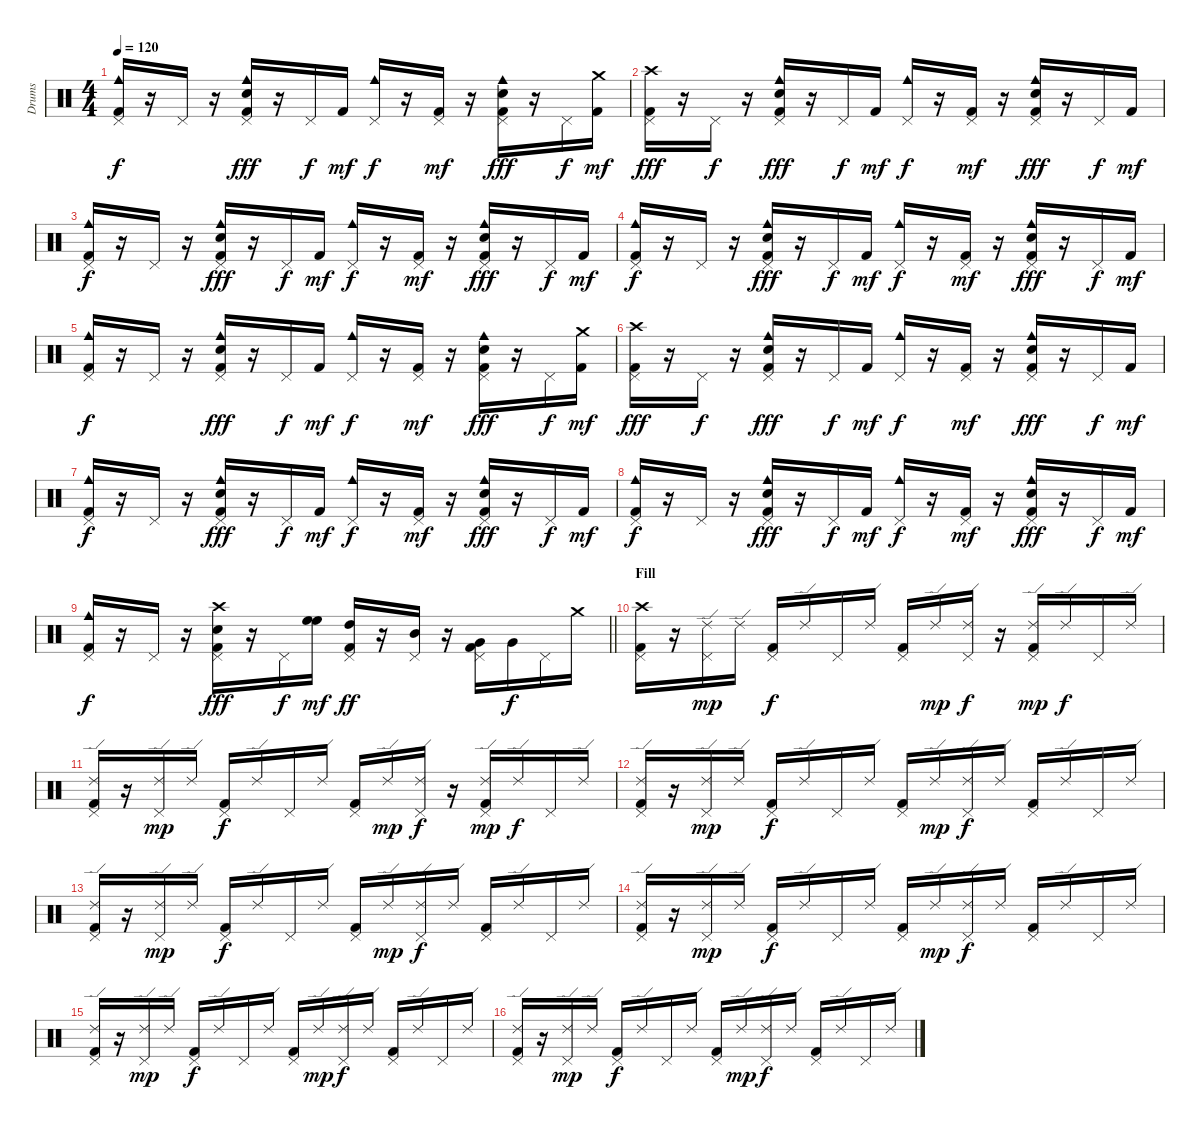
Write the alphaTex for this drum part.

\track ("Drums" "Drums") {instrument percussion}
\staff {score}
\articulation defaults
\ts (4 4)
\tempo 120
\clef neutral
\ks c
("Cowbell medium (hit)" "Kick (hit) 2" "Pedal Hi-Hat (hit)").16{dy f} r.16 "Pedal Hi-Hat (hit)".16 r.16 ("Cowbell medium (hit)" "Snare (hit) 2" "Kick (hit) 2" "Pedal Hi-Hat (hit)").16{dy fff} r.16 "Pedal Hi-Hat (hit)".16{dy f} "Kick (hit) 2".16{dy mf} ("Cowbell medium (hit)" "Pedal Hi-Hat (hit)").16{dy f} r.16 ("Kick (hit) 2" "Pedal Hi-Hat (hit)").16{dy mf} r.16 ("Cowbell medium (hit)" "Snare (hit) 2" "Kick (hit) 2" "Pedal Hi-Hat (hit)").16{dy fff} r.16 "Pedal Hi-Hat (hit)".16{dy f} ("Kick (hit) 2" "Crash medium (hit)").16{dy mf} |
("Crash high (hit)" "Kick (hit) 2" "Pedal Hi-Hat (hit)").16{dy fff} r.16 "Pedal Hi-Hat (hit)".16{dy f} r.16 ("Cowbell medium (hit)" "Snare (hit) 2" "Kick (hit) 2" "Pedal Hi-Hat (hit)").16{dy fff} r.16 "Pedal Hi-Hat (hit)".16{dy f} "Kick (hit) 2".16{dy mf} ("Cowbell medium (hit)" "Pedal Hi-Hat (hit)").16{dy f} r.16 ("Kick (hit) 2" "Pedal Hi-Hat (hit)").16{dy mf} r.16 ("Cowbell medium (hit)" "Snare (hit) 2" "Kick (hit) 2" "Pedal Hi-Hat (hit)").16{dy fff} r.16 "Pedal Hi-Hat (hit)".16{dy f} "Kick (hit) 2".16{dy mf} |
("Cowbell medium (hit)" "Kick (hit) 2" "Pedal Hi-Hat (hit)").16{dy f} r.16 "Pedal Hi-Hat (hit)".16 r.16 ("Cowbell medium (hit)" "Snare (hit) 2" "Kick (hit) 2" "Pedal Hi-Hat (hit)").16{dy fff} r.16 "Pedal Hi-Hat (hit)".16{dy f} "Kick (hit) 2".16{dy mf} ("Cowbell medium (hit)" "Pedal Hi-Hat (hit)").16{dy f} r.16 ("Kick (hit) 2" "Pedal Hi-Hat (hit)").16{dy mf} r.16 ("Cowbell medium (hit)" "Snare (hit) 2" "Kick (hit) 2" "Pedal Hi-Hat (hit)").16{dy fff} r.16 "Pedal Hi-Hat (hit)".16{dy f} "Kick (hit) 2".16{dy mf} |
("Cowbell medium (hit)" "Kick (hit) 2" "Pedal Hi-Hat (hit)").16{dy f} r.16 "Pedal Hi-Hat (hit)".16 r.16 ("Cowbell medium (hit)" "Snare (hit) 2" "Kick (hit) 2" "Pedal Hi-Hat (hit)").16{dy fff} r.16 "Pedal Hi-Hat (hit)".16{dy f} "Kick (hit) 2".16{dy mf} ("Cowbell medium (hit)" "Pedal Hi-Hat (hit)").16{dy f} r.16 ("Kick (hit) 2" "Pedal Hi-Hat (hit)").16{dy mf} r.16 ("Cowbell medium (hit)" "Snare (hit) 2" "Kick (hit) 2" "Pedal Hi-Hat (hit)").16{dy fff} r.16 "Pedal Hi-Hat (hit)".16{dy f} "Kick (hit) 2".16{dy mf} |
("Cowbell medium (hit)" "Kick (hit) 2" "Pedal Hi-Hat (hit)").16{dy f} r.16 "Pedal Hi-Hat (hit)".16 r.16 ("Cowbell medium (hit)" "Snare (hit) 2" "Kick (hit) 2" "Pedal Hi-Hat (hit)").16{dy fff} r.16 "Pedal Hi-Hat (hit)".16{dy f} "Kick (hit) 2".16{dy mf} ("Cowbell medium (hit)" "Pedal Hi-Hat (hit)").16{dy f} r.16 ("Kick (hit) 2" "Pedal Hi-Hat (hit)").16{dy mf} r.16 ("Cowbell medium (hit)" "Snare (hit) 2" "Kick (hit) 2" "Pedal Hi-Hat (hit)").16{dy fff} r.16 "Pedal Hi-Hat (hit)".16{dy f} ("Kick (hit) 2" "Crash medium (hit)").16{dy mf} |
("Crash high (hit)" "Kick (hit) 2" "Pedal Hi-Hat (hit)").16{dy fff} r.16 "Pedal Hi-Hat (hit)".16{dy f} r.16 ("Cowbell medium (hit)" "Snare (hit) 2" "Kick (hit) 2" "Pedal Hi-Hat (hit)").16{dy fff} r.16 "Pedal Hi-Hat (hit)".16{dy f} "Kick (hit) 2".16{dy mf} ("Cowbell medium (hit)" "Pedal Hi-Hat (hit)").16{dy f} r.16 ("Kick (hit) 2" "Pedal Hi-Hat (hit)").16{dy mf} r.16 ("Cowbell medium (hit)" "Snare (hit) 2" "Kick (hit) 2" "Pedal Hi-Hat (hit)").16{dy fff} r.16 "Pedal Hi-Hat (hit)".16{dy f} "Kick (hit) 2".16{dy mf} |
("Cowbell medium (hit)" "Kick (hit) 2" "Pedal Hi-Hat (hit)").16{dy f} r.16 "Pedal Hi-Hat (hit)".16 r.16 ("Cowbell medium (hit)" "Snare (hit) 2" "Kick (hit) 2" "Pedal Hi-Hat (hit)").16{dy fff} r.16 "Pedal Hi-Hat (hit)".16{dy f} "Kick (hit) 2".16{dy mf} ("Cowbell medium (hit)" "Pedal Hi-Hat (hit)").16{dy f} r.16 ("Kick (hit) 2" "Pedal Hi-Hat (hit)").16{dy mf} r.16 ("Cowbell medium (hit)" "Snare (hit) 2" "Kick (hit) 2" "Pedal Hi-Hat (hit)").16{dy fff} r.16 "Pedal Hi-Hat (hit)".16{dy f} "Kick (hit) 2".16{dy mf} |
("Cowbell medium (hit)" "Kick (hit) 2" "Pedal Hi-Hat (hit)").16{dy f} r.16 "Pedal Hi-Hat (hit)".16 r.16 ("Cowbell medium (hit)" "Snare (hit) 2" "Kick (hit) 2" "Pedal Hi-Hat (hit)").16{dy fff} r.16 "Pedal Hi-Hat (hit)".16{dy f} "Kick (hit) 2".16{dy mf} ("Cowbell medium (hit)" "Pedal Hi-Hat (hit)").16{dy f} r.16 ("Kick (hit) 2" "Pedal Hi-Hat (hit)").16{dy mf} r.16 ("Cowbell medium (hit)" "Snare (hit) 2" "Kick (hit) 2" "Pedal Hi-Hat (hit)").16{dy fff} r.16 "Pedal Hi-Hat (hit)".16{dy f} "Kick (hit) 2".16{dy mf} |
\barLineRight lightlight
("Kick (hit) 2" "Cowbell medium (hit)" "Pedal Hi-Hat (hit)").16{dy f} r.16 "Pedal Hi-Hat (hit)".16 r.16 ("Kick (hit) 2" "Snare (hit) 2" "Crash high (hit)" "Pedal Hi-Hat (hit)").16{dy fff} r.16 "Pedal Hi-Hat (hit)".16{dy f} ("High Floor Tom (hit)" "High Floor Tom (hit)").16{dy mf} ("Kick (hit) 2" "High Tom (hit)" "Pedal Hi-Hat (hit)").16{dy ff} r.16 ("Mid Tom (hit)" "Pedal Hi-Hat (hit)").16 r.16 ("Kick (hit) 2" "Very Low Tom (hit)" "Pedal Hi-Hat (hit)").16 "Very Low Tom (hit)".16{dy f} "Pedal Hi-Hat (hit)".16 "Crash medium (hit)".16 |
\section ("" "Fill")
("Kick (hit) 2" "Pedal Hi-Hat (hit)" "Crash high (hit)").16 r.16 ("Ride (edge) 2" "Pedal Hi-Hat (hit)").16{dy mp} "Ride (edge) 2".16 ("Kick (hit) 2" "Pedal Hi-Hat (hit)").16{dy f} "Ride (edge) 2".16 "Pedal Hi-Hat (hit)".16 "Ride (edge) 2".16 ("Kick (hit) 2" "Pedal Hi-Hat (hit)").16 "Ride (edge) 2".16{dy mp} ("Ride (edge) 2" "Pedal Hi-Hat (hit)").16{dy f} r.16 ("Ride (edge) 2" "Kick (hit) 2" "Pedal Hi-Hat (hit)").16{dy mp} "Ride (edge) 2".16{dy f} "Pedal Hi-Hat (hit)".16 "Ride (edge) 2".16 |
("Ride (edge) 2" "Kick (hit) 2" "Pedal Hi-Hat (hit)").16 r.16 ("Ride (edge) 2" "Pedal Hi-Hat (hit)").16{dy mp} "Ride (edge) 2".16 ("Kick (hit) 2" "Pedal Hi-Hat (hit)").16{dy f} "Ride (edge) 2".16 "Pedal Hi-Hat (hit)".16 "Ride (edge) 2".16 ("Kick (hit) 2" "Pedal Hi-Hat (hit)").16 "Ride (edge) 2".16{dy mp} ("Ride (edge) 2" "Pedal Hi-Hat (hit)").16{dy f} r.16 ("Ride (edge) 2" "Kick (hit) 2" "Pedal Hi-Hat (hit)").16{dy mp} "Ride (edge) 2".16{dy f} "Pedal Hi-Hat (hit)".16 "Ride (edge) 2".16 |
("Ride (edge) 2" "Kick (hit) 2" "Pedal Hi-Hat (hit)").16 r.16 ("Ride (edge) 2" "Pedal Hi-Hat (hit)").16{dy mp} "Ride (edge) 2".16 ("Kick (hit) 2" "Pedal Hi-Hat (hit)").16{dy f} "Ride (edge) 2".16 "Pedal Hi-Hat (hit)".16 "Ride (edge) 2".16 ("Kick (hit) 2" "Pedal Hi-Hat (hit)").16 "Ride (edge) 2".16{dy mp} ("Ride (edge) 2" "Pedal Hi-Hat (hit)").16{dy f} "Ride (edge) 2".16 ("Kick (hit) 2" "Pedal Hi-Hat (hit)").16 "Ride (edge) 2".16 "Pedal Hi-Hat (hit)".16 "Ride (edge) 2".16 |
("Ride (edge) 2" "Kick (hit) 2" "Pedal Hi-Hat (hit)").16 r.16 ("Ride (edge) 2" "Pedal Hi-Hat (hit)").16{dy mp} "Ride (edge) 2".16 ("Kick (hit) 2" "Pedal Hi-Hat (hit)").16{dy f} "Ride (edge) 2".16 "Pedal Hi-Hat (hit)".16 "Ride (edge) 2".16 ("Kick (hit) 2" "Pedal Hi-Hat (hit)").16 "Ride (edge) 2".16{dy mp} ("Ride (edge) 2" "Pedal Hi-Hat (hit)").16{dy f} "Ride (edge) 2".16 ("Kick (hit) 2" "Pedal Hi-Hat (hit)").16 "Ride (edge) 2".16 "Pedal Hi-Hat (hit)".16 "Ride (edge) 2".16 |
("Ride (edge) 2" "Kick (hit) 2" "Pedal Hi-Hat (hit)").16 r.16 ("Ride (edge) 2" "Pedal Hi-Hat (hit)").16{dy mp} "Ride (edge) 2".16 ("Kick (hit) 2" "Pedal Hi-Hat (hit)").16{dy f} "Ride (edge) 2".16 "Pedal Hi-Hat (hit)".16 "Ride (edge) 2".16 ("Kick (hit) 2" "Pedal Hi-Hat (hit)").16 "Ride (edge) 2".16{dy mp} ("Ride (edge) 2" "Pedal Hi-Hat (hit)").16{dy f} "Ride (edge) 2".16 ("Kick (hit) 2" "Pedal Hi-Hat (hit)").16 "Ride (edge) 2".16 "Pedal Hi-Hat (hit)".16 "Ride (edge) 2".16 |
("Ride (edge) 2" "Kick (hit) 2" "Pedal Hi-Hat (hit)").16 r.16 ("Ride (edge) 2" "Pedal Hi-Hat (hit)").16{dy mp} "Ride (edge) 2".16 ("Kick (hit) 2" "Pedal Hi-Hat (hit)").16{dy f} "Ride (edge) 2".16 "Pedal Hi-Hat (hit)".16 "Ride (edge) 2".16 ("Kick (hit) 2" "Pedal Hi-Hat (hit)").16 "Ride (edge) 2".16{dy mp} ("Ride (edge) 2" "Pedal Hi-Hat (hit)").16{dy f} "Ride (edge) 2".16 ("Kick (hit) 2" "Pedal Hi-Hat (hit)").16 "Ride (edge) 2".16 "Pedal Hi-Hat (hit)".16 "Ride (edge) 2".16 |
("Ride (edge) 2" "Kick (hit) 2" "Pedal Hi-Hat (hit)").16 r.16 ("Ride (edge) 2" "Pedal Hi-Hat (hit)").16{dy mp} "Ride (edge) 2".16 ("Kick (hit) 2" "Pedal Hi-Hat (hit)").16{dy f} "Ride (edge) 2".16 "Pedal Hi-Hat (hit)".16 "Ride (edge) 2".16 ("Kick (hit) 2" "Pedal Hi-Hat (hit)").16 "Ride (edge) 2".16{dy mp} ("Ride (edge) 2" "Pedal Hi-Hat (hit)").16{dy f} "Ride (edge) 2".16 ("Kick (hit) 2" "Pedal Hi-Hat (hit)").16 "Ride (edge) 2".16 "Pedal Hi-Hat (hit)".16 "Ride (edge) 2".16
